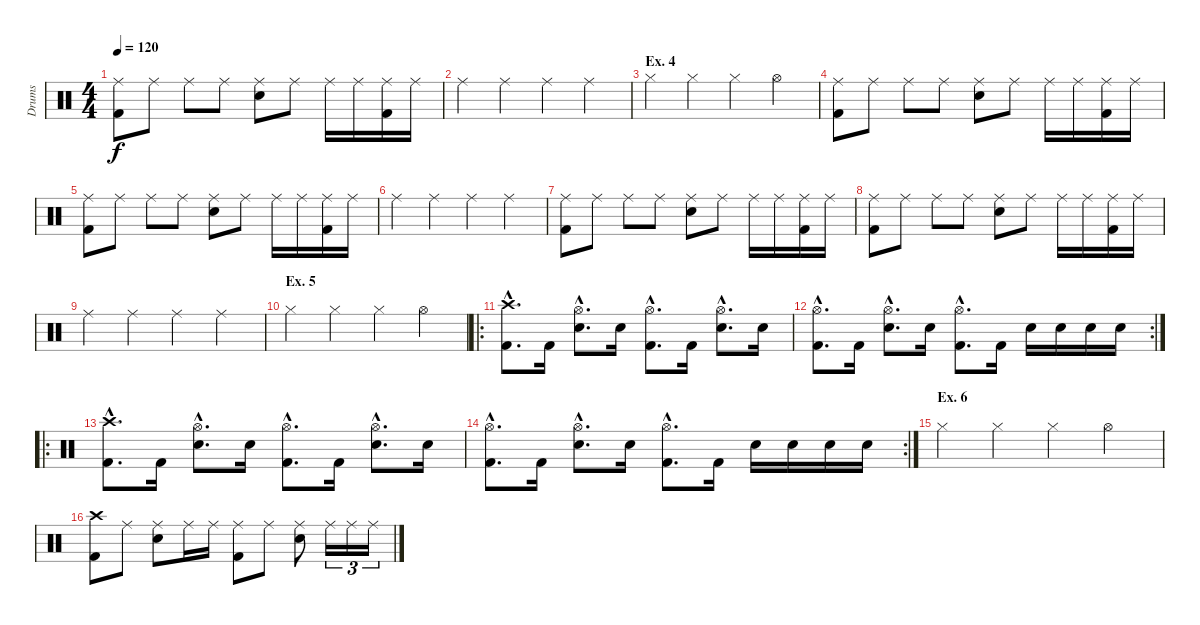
\track ("Drums" "Drums") {instrument percussion}
\staff {score}
\articulation defaults
\ts (4 4)
\tempo 120
\clef neutral
\ks c
("Ride (middle)" "Kick (hit) 2").8{dy f} "Ride (middle)".8 "Ride (middle)".8 "Ride (middle)".8 ("Ride (middle)" "Snare (hit) 2").8 "Ride (middle)".8 "Ride (middle)".16 "Ride (middle)".16 ("Ride (middle)" "Kick (hit) 2").16 "Ride (middle)".16 |
"Ride (middle)".4 "Ride (middle)".4 "Ride (middle)".4 "Ride (middle)".4 |
\section ("" "Ex. 4")
"Hi-Hat (closed)".4 "Hi-Hat (closed)".4 "Hi-Hat (closed)".4 "Hi-Hat (open)".4 |
("Ride (middle)" "Kick (hit) 2").8 "Ride (middle)".8 "Ride (middle)".8 "Ride (middle)".8 ("Ride (middle)" "Snare (hit) 2").8 "Ride (middle)".8 "Ride (middle)".16 "Ride (middle)".16 ("Ride (middle)" "Kick (hit) 2").16 "Ride (middle)".16 |
("Ride (middle)" "Kick (hit) 2").8 "Ride (middle)".8 "Ride (middle)".8 "Ride (middle)".8 ("Ride (middle)" "Snare (hit) 2").8 "Ride (middle)".8 "Ride (middle)".16 "Ride (middle)".16 ("Ride (middle)" "Kick (hit) 2").16 "Ride (middle)".16 |
"Ride (middle)".4 "Ride (middle)".4 "Ride (middle)".4 "Ride (middle)".4 |
("Ride (middle)" "Kick (hit) 2").8 "Ride (middle)".8 "Ride (middle)".8 "Ride (middle)".8 ("Ride (middle)" "Snare (hit) 2").8 "Ride (middle)".8 "Ride (middle)".16 "Ride (middle)".16 ("Ride (middle)" "Kick (hit) 2").16 "Ride (middle)".16 |
("Ride (middle)" "Kick (hit) 2").8 "Ride (middle)".8 "Ride (middle)".8 "Ride (middle)".8 ("Ride (middle)" "Snare (hit) 2").8 "Ride (middle)".8 "Ride (middle)".16 "Ride (middle)".16 ("Ride (middle)" "Kick (hit) 2").16 "Ride (middle)".16 |
"Ride (middle)".4 "Ride (middle)".4 "Ride (middle)".4 "Ride (middle)".4 |
\section ("" "Ex. 5")
"Hi-Hat (closed)".4 "Hi-Hat (closed)".4 "Hi-Hat (closed)".4 "Hi-Hat (open)".4 |
\ro
("Crash high (hit)"{hac} "Kick (hit) 2"{hac}).8{d} "Kick (hit) 2".16 ("Hi-Hat (open)"{hac} "Snare (hit) 2"{hac}).8{d} "Snare (hit) 2".16 ("Hi-Hat (open)"{hac} "Kick (hit) 2"{hac}).8{d} "Kick (hit) 2".16 ("Hi-Hat (open)"{hac} "Snare (hit) 2"{hac}).8{d} "Snare (hit) 2".16 |
\rc 2
("Hi-Hat (open)"{hac} "Kick (hit) 2"{hac}).8{d} "Kick (hit) 2".16 ("Hi-Hat (open)"{hac} "Snare (hit) 2"{hac}).8{d} "Snare (hit) 2".16 ("Hi-Hat (open)"{hac} "Kick (hit) 2"{hac}).8{d} "Kick (hit) 2".16 "Snare (hit) 2".16 "Snare (hit) 2".16 "Snare (hit) 2".16 "Snare (hit) 2".16 |
\ro
("Crash high (hit)"{hac} "Kick (hit) 2"{hac}).8{d} "Kick (hit) 2".16 ("Hi-Hat (open)"{hac} "Snare (hit) 2"{hac}).8{d} "Snare (hit) 2".16 ("Hi-Hat (open)"{hac} "Kick (hit) 2"{hac}).8{d} "Kick (hit) 2".16 ("Hi-Hat (open)"{hac} "Snare (hit) 2"{hac}).8{d} "Snare (hit) 2".16 |
\rc 2
("Hi-Hat (open)"{hac} "Kick (hit) 2"{hac}).8{d} "Kick (hit) 2".16 ("Hi-Hat (open)"{hac} "Snare (hit) 2"{hac}).8{d} "Snare (hit) 2".16 ("Hi-Hat (open)"{hac} "Kick (hit) 2"{hac}).8{d} "Kick (hit) 2".16 "Snare (hit) 2".16 "Snare (hit) 2".16 "Snare (hit) 2".16 "Snare (hit) 2".16 |
\section ("" "Ex. 6")
"Hi-Hat (closed)".4 "Hi-Hat (closed)".4 "Hi-Hat (closed)".4 "Hi-Hat (open)".4 |
("Crash high (hit)" "Kick (hit) 2").8 "Ride (middle)".8 ("Ride (middle)" "Snare (hit) 2").8 "Ride (middle)".16 "Ride (middle)".16 ("Ride (middle)" "Kick (hit) 2").8 "Ride (middle)".8 ("Ride (middle)" "Snare (hit) 2").8 "Ride (middle)".16{tu (3 2)} "Ride (middle)".16{tu (3 2)} "Ride (middle)".16{tu (3 2)}
